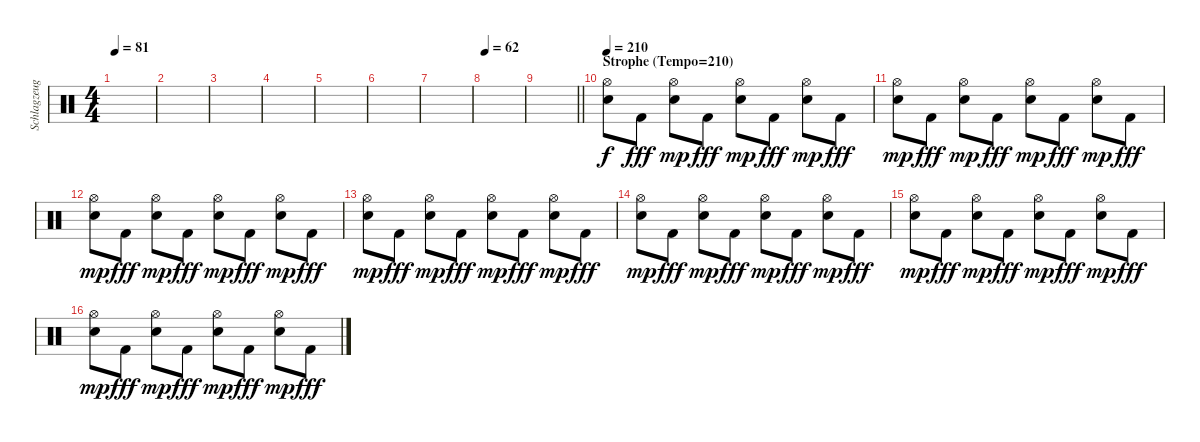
\track ("Schlagzeug" "Schlagzeug") {instrument percussion}
\staff {score}
\articulation defaults
\ts (4 4)
\tempo 81
\clef neutral
\ks c
|
|
|
|
|
|
|
\tempo 62
|
\barLineRight lightlight
|
\section ("" "Strophe (Tempo=210)")
\tempo 210
("Hi-Hat (open)" "Snare (hit) 2").8 "Kick (hit) 2".8{dy fff} ("Hi-Hat (open)" "Snare (hit) 2").8{dy mp} "Kick (hit) 2".8{dy fff} ("Hi-Hat (open)" "Snare (hit) 2").8{dy mp} "Kick (hit) 2".8{dy fff} ("Hi-Hat (open)" "Snare (hit) 2").8{dy mp} "Kick (hit) 2".8{dy fff} |
("Hi-Hat (open)" "Snare (hit) 2").8{dy mp} "Kick (hit) 2".8{dy fff} ("Hi-Hat (open)" "Snare (hit) 2").8{dy mp} "Kick (hit) 2".8{dy fff} ("Hi-Hat (open)" "Snare (hit) 2").8{dy mp} "Kick (hit) 2".8{dy fff} ("Hi-Hat (open)" "Snare (hit) 2").8{dy mp} "Kick (hit) 2".8{dy fff} |
("Hi-Hat (open)" "Snare (hit) 2").8{dy mp} "Kick (hit) 2".8{dy fff} ("Hi-Hat (open)" "Snare (hit) 2").8{dy mp} "Kick (hit) 2".8{dy fff} ("Hi-Hat (open)" "Snare (hit) 2").8{dy mp} "Kick (hit) 2".8{dy fff} ("Hi-Hat (open)" "Snare (hit) 2").8{dy mp} "Kick (hit) 2".8{dy fff} |
("Hi-Hat (open)" "Snare (hit) 2").8{dy mp} "Kick (hit) 2".8{dy fff} ("Hi-Hat (open)" "Snare (hit) 2").8{dy mp} "Kick (hit) 2".8{dy fff} ("Hi-Hat (open)" "Snare (hit) 2").8{dy mp} "Kick (hit) 2".8{dy fff} ("Hi-Hat (open)" "Snare (hit) 2").8{dy mp} "Kick (hit) 2".8{dy fff} |
("Hi-Hat (open)" "Snare (hit) 2").8{dy mp} "Kick (hit) 2".8{dy fff} ("Hi-Hat (open)" "Snare (hit) 2").8{dy mp} "Kick (hit) 2".8{dy fff} ("Hi-Hat (open)" "Snare (hit) 2").8{dy mp} "Kick (hit) 2".8{dy fff} ("Hi-Hat (open)" "Snare (hit) 2").8{dy mp} "Kick (hit) 2".8{dy fff} |
("Hi-Hat (open)" "Snare (hit) 2").8{dy mp} "Kick (hit) 2".8{dy fff} ("Hi-Hat (open)" "Snare (hit) 2").8{dy mp} "Kick (hit) 2".8{dy fff} ("Hi-Hat (open)" "Snare (hit) 2").8{dy mp} "Kick (hit) 2".8{dy fff} ("Hi-Hat (open)" "Snare (hit) 2").8{dy mp} "Kick (hit) 2".8{dy fff} |
("Hi-Hat (open)" "Snare (hit) 2").8{dy mp} "Kick (hit) 2".8{dy fff} ("Hi-Hat (open)" "Snare (hit) 2").8{dy mp} "Kick (hit) 2".8{dy fff} ("Hi-Hat (open)" "Snare (hit) 2").8{dy mp} "Kick (hit) 2".8{dy fff} ("Hi-Hat (open)" "Snare (hit) 2").8{dy mp} "Kick (hit) 2".8{dy fff}
